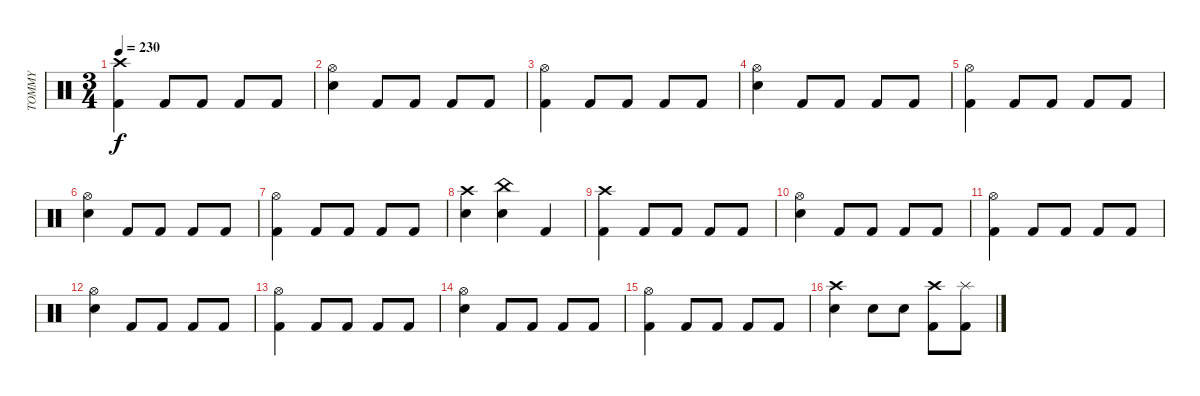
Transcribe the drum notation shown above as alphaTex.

\track ("TOMMY" "TOMMY") {instrument percussion}
\staff {score}
\articulation defaults
\ts (3 4)
\tempo 230
\clef neutral
\ks c
("Kick (hit) 2" "Crash high (hit)").4{dy f} "Kick (hit) 2".8 "Kick (hit) 2".8 "Kick (hit) 2".8 "Kick (hit) 2".8 |
("Snare (hit) 2" "Hi-Hat (open)").4 "Kick (hit) 2".8 "Kick (hit) 2".8 "Kick (hit) 2".8 "Kick (hit) 2".8 |
("Kick (hit) 2" "Hi-Hat (open)").4 "Kick (hit) 2".8 "Kick (hit) 2".8 "Kick (hit) 2".8 "Kick (hit) 2".8 |
("Snare (hit) 2" "Hi-Hat (open)").4 "Kick (hit) 2".8 "Kick (hit) 2".8 "Kick (hit) 2".8 "Kick (hit) 2".8 |
("Kick (hit) 2" "Hi-Hat (open)").4 "Kick (hit) 2".8 "Kick (hit) 2".8 "Kick (hit) 2".8 "Kick (hit) 2".8 |
("Snare (hit) 2" "Hi-Hat (open)").4 "Kick (hit) 2".8 "Kick (hit) 2".8 "Kick (hit) 2".8 "Kick (hit) 2".8 |
("Kick (hit) 2" "Hi-Hat (open)").4 "Kick (hit) 2".8 "Kick (hit) 2".8 "Kick (hit) 2".8 "Kick (hit) 2".8 |
("Snare (hit) 2" "Crash high (hit)").4 ("Snare (hit) 2" "China (hit)").4 "Kick (hit) 2".4 |
("Kick (hit) 2" "Crash high (hit)").4 "Kick (hit) 2".8 "Kick (hit) 2".8 "Kick (hit) 2".8 "Kick (hit) 2".8 |
("Snare (hit) 2" "Hi-Hat (open)").4 "Kick (hit) 2".8 "Kick (hit) 2".8 "Kick (hit) 2".8 "Kick (hit) 2".8 |
("Kick (hit) 2" "Hi-Hat (open)").4 "Kick (hit) 2".8 "Kick (hit) 2".8 "Kick (hit) 2".8 "Kick (hit) 2".8 |
("Snare (hit) 2" "Hi-Hat (open)").4 "Kick (hit) 2".8 "Kick (hit) 2".8 "Kick (hit) 2".8 "Kick (hit) 2".8 |
("Kick (hit) 2" "Hi-Hat (open)").4 "Kick (hit) 2".8 "Kick (hit) 2".8 "Kick (hit) 2".8 "Kick (hit) 2".8 |
("Snare (hit) 2" "Hi-Hat (open)").4 "Kick (hit) 2".8 "Kick (hit) 2".8 "Kick (hit) 2".8 "Kick (hit) 2".8 |
("Kick (hit) 2" "Hi-Hat (open)").4 "Kick (hit) 2".8 "Kick (hit) 2".8 "Kick (hit) 2".8 "Kick (hit) 2".8 |
("Snare (hit) 2" "Crash high (hit)").4 "Snare (hit) 2".8 "Snare (hit) 2".8 ("Kick (hit) 2" "Crash high (hit)").8 ("Kick (hit) 2" "Splash (hit)").8
